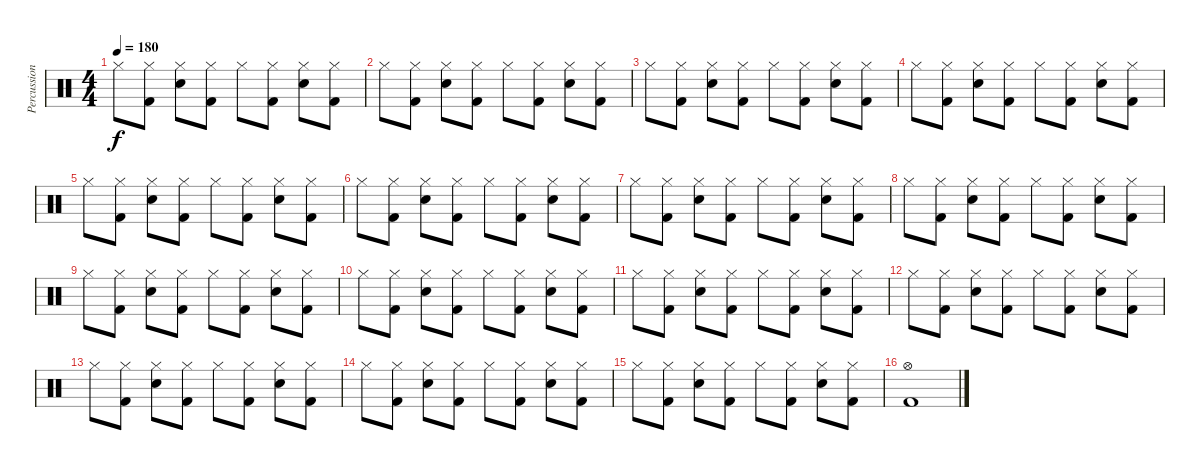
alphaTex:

\track ("Percussion" "Percussion") {instrument percussion}
\staff {score}
\articulation defaults
\ts (4 4)
\tempo 180
\clef neutral
\ks c "Hi-Hat (closed)".8{dy f}
("Hi-Hat (closed)" "Kick (hit) 2").8 ("Hi-Hat (closed)" "Electric Snare (hit)").8 ("Hi-Hat (closed)" "Kick (hit) 2").8 "Hi-Hat (closed)".8 ("Hi-Hat (closed)" "Kick (hit) 2").8 ("Hi-Hat (closed)" "Electric Snare (hit)").8 ("Hi-Hat (closed)" "Kick (hit) 2").8 |
"Hi-Hat (closed)".8 ("Hi-Hat (closed)" "Kick (hit) 2").8 ("Hi-Hat (closed)" "Electric Snare (hit)").8 ("Hi-Hat (closed)" "Kick (hit) 2").8 "Hi-Hat (closed)".8 ("Hi-Hat (closed)" "Kick (hit) 2").8 ("Hi-Hat (closed)" "Electric Snare (hit)").8 ("Hi-Hat (closed)" "Kick (hit) 2").8 |
"Hi-Hat (closed)".8 ("Hi-Hat (closed)" "Kick (hit) 2").8 ("Hi-Hat (closed)" "Electric Snare (hit)").8 ("Hi-Hat (closed)" "Kick (hit) 2").8 "Hi-Hat (closed)".8 ("Hi-Hat (closed)" "Kick (hit) 2").8 ("Hi-Hat (closed)" "Electric Snare (hit)").8 ("Hi-Hat (closed)" "Kick (hit) 2").8 |
"Hi-Hat (closed)".8 ("Hi-Hat (closed)" "Kick (hit) 2").8 ("Hi-Hat (closed)" "Electric Snare (hit)").8 ("Hi-Hat (closed)" "Kick (hit) 2").8 "Hi-Hat (closed)".8 ("Hi-Hat (closed)" "Kick (hit) 2").8 ("Hi-Hat (closed)" "Electric Snare (hit)").8 ("Hi-Hat (closed)" "Kick (hit) 2").8 |
"Hi-Hat (closed)".8 ("Hi-Hat (closed)" "Kick (hit) 2").8 ("Hi-Hat (closed)" "Electric Snare (hit)").8 ("Hi-Hat (closed)" "Kick (hit) 2").8 "Hi-Hat (closed)".8 ("Hi-Hat (closed)" "Kick (hit) 2").8 ("Hi-Hat (closed)" "Electric Snare (hit)").8 ("Hi-Hat (closed)" "Kick (hit) 2").8 |
"Hi-Hat (closed)".8 ("Hi-Hat (closed)" "Kick (hit) 2").8 ("Hi-Hat (closed)" "Electric Snare (hit)").8 ("Hi-Hat (closed)" "Kick (hit) 2").8 "Hi-Hat (closed)".8 ("Hi-Hat (closed)" "Kick (hit) 2").8 ("Hi-Hat (closed)" "Electric Snare (hit)").8 ("Hi-Hat (closed)" "Kick (hit) 2").8 |
"Hi-Hat (closed)".8 ("Hi-Hat (closed)" "Kick (hit) 2").8 ("Hi-Hat (closed)" "Electric Snare (hit)").8 ("Hi-Hat (closed)" "Kick (hit) 2").8 "Hi-Hat (closed)".8 ("Hi-Hat (closed)" "Kick (hit) 2").8 ("Hi-Hat (closed)" "Electric Snare (hit)").8 ("Hi-Hat (closed)" "Kick (hit) 2").8 |
"Hi-Hat (closed)".8 ("Hi-Hat (closed)" "Kick (hit) 2").8 ("Hi-Hat (closed)" "Electric Snare (hit)").8 ("Hi-Hat (closed)" "Kick (hit) 2").8 "Hi-Hat (closed)".8 ("Hi-Hat (closed)" "Kick (hit) 2").8 ("Hi-Hat (closed)" "Electric Snare (hit)").8 ("Hi-Hat (closed)" "Kick (hit) 2").8 |
"Hi-Hat (closed)".8 ("Hi-Hat (closed)" "Kick (hit) 2").8 ("Hi-Hat (closed)" "Electric Snare (hit)").8 ("Hi-Hat (closed)" "Kick (hit) 2").8 "Hi-Hat (closed)".8 ("Hi-Hat (closed)" "Kick (hit) 2").8 ("Hi-Hat (closed)" "Electric Snare (hit)").8 ("Hi-Hat (closed)" "Kick (hit) 2").8 |
"Hi-Hat (closed)".8 ("Hi-Hat (closed)" "Kick (hit) 2").8 ("Hi-Hat (closed)" "Electric Snare (hit)").8 ("Hi-Hat (closed)" "Kick (hit) 2").8 "Hi-Hat (closed)".8 ("Hi-Hat (closed)" "Kick (hit) 2").8 ("Hi-Hat (closed)" "Electric Snare (hit)").8 ("Hi-Hat (closed)" "Kick (hit) 2").8 |
"Hi-Hat (closed)".8 ("Hi-Hat (closed)" "Kick (hit) 2").8 ("Hi-Hat (closed)" "Electric Snare (hit)").8 ("Hi-Hat (closed)" "Kick (hit) 2").8 "Hi-Hat (closed)".8 ("Hi-Hat (closed)" "Kick (hit) 2").8 ("Hi-Hat (closed)" "Electric Snare (hit)").8 ("Hi-Hat (closed)" "Kick (hit) 2").8 |
"Hi-Hat (closed)".8 ("Hi-Hat (closed)" "Kick (hit) 2").8 ("Hi-Hat (closed)" "Electric Snare (hit)").8 ("Hi-Hat (closed)" "Kick (hit) 2").8 "Hi-Hat (closed)".8 ("Hi-Hat (closed)" "Kick (hit) 2").8 ("Hi-Hat (closed)" "Electric Snare (hit)").8 ("Hi-Hat (closed)" "Kick (hit) 2").8 |
"Hi-Hat (closed)".8 ("Hi-Hat (closed)" "Kick (hit) 2").8 ("Hi-Hat (closed)" "Electric Snare (hit)").8 ("Hi-Hat (closed)" "Kick (hit) 2").8 "Hi-Hat (closed)".8 ("Hi-Hat (closed)" "Kick (hit) 2").8 ("Hi-Hat (closed)" "Electric Snare (hit)").8 ("Hi-Hat (closed)" "Kick (hit) 2").8 |
"Hi-Hat (closed)".8 ("Hi-Hat (closed)" "Kick (hit) 2").8 ("Hi-Hat (closed)" "Electric Snare (hit)").8 ("Hi-Hat (closed)" "Kick (hit) 2").8 "Hi-Hat (closed)".8 ("Hi-Hat (closed)" "Kick (hit) 2").8 ("Hi-Hat (closed)" "Electric Snare (hit)").8 ("Hi-Hat (closed)" "Kick (hit) 2").8 |
"Hi-Hat (closed)".8 ("Hi-Hat (closed)" "Kick (hit) 2").8 ("Hi-Hat (closed)" "Electric Snare (hit)").8 ("Hi-Hat (closed)" "Kick (hit) 2").8 "Hi-Hat (closed)".8 ("Hi-Hat (closed)" "Kick (hit) 2").8 ("Hi-Hat (closed)" "Electric Snare (hit)").8 ("Hi-Hat (closed)" "Kick (hit) 2").8 |
("Hi-Hat (open)" "Kick (hit) 2").1
